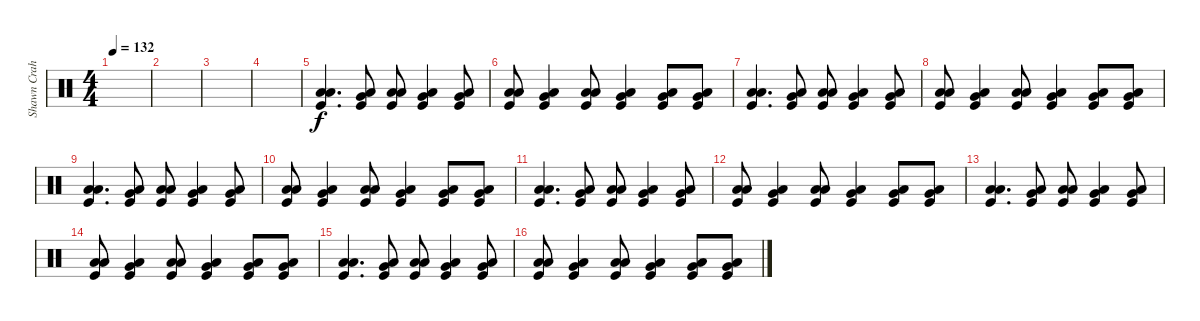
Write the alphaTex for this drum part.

\track ("Shawn Crahan" "Shawn Crah") {instrument percussion}
\staff {score}
\articulation defaults
\ts (4 4)
\tempo 132
\clef neutral
\ks c
|
|
|
|
("Low Floor Tom (hit)" "Kick (hit)" "Low Tom (hit)").4{d} ("Low Floor Tom (hit)" "Kick (hit)" "Very Low Tom (hit)").8 ("Low Floor Tom (hit)" "Kick (hit)" "Low Tom (hit)").8 ("Low Floor Tom (hit)" "Kick (hit)" "Very Low Tom (hit)").4 ("Low Floor Tom (hit)" "Kick (hit)" "Very Low Tom (hit)").8 |
("Low Floor Tom (hit)" "Kick (hit)" "Low Tom (hit)").8 ("Low Floor Tom (hit)" "Kick (hit)" "Very Low Tom (hit)").4 ("Low Floor Tom (hit)" "Kick (hit)" "Low Tom (hit)").8 ("Low Floor Tom (hit)" "Kick (hit)" "Very Low Tom (hit)").4 ("Low Floor Tom (hit)" "Kick (hit)" "Very Low Tom (hit)").8 ("Low Floor Tom (hit)" "Kick (hit)" "Very Low Tom (hit)").8 |
("Low Floor Tom (hit)" "Kick (hit)" "Low Tom (hit)").4{d} ("Low Floor Tom (hit)" "Kick (hit)" "Very Low Tom (hit)").8 ("Low Floor Tom (hit)" "Kick (hit)" "Low Tom (hit)").8 ("Low Floor Tom (hit)" "Kick (hit)" "Very Low Tom (hit)").4 ("Low Floor Tom (hit)" "Kick (hit)" "Very Low Tom (hit)").8 |
("Low Floor Tom (hit)" "Kick (hit)" "Low Tom (hit)").8 ("Low Floor Tom (hit)" "Kick (hit)" "Very Low Tom (hit)").4 ("Low Floor Tom (hit)" "Kick (hit)" "Low Tom (hit)").8 ("Low Floor Tom (hit)" "Kick (hit)" "Very Low Tom (hit)").4 ("Low Floor Tom (hit)" "Kick (hit)" "Very Low Tom (hit)").8 ("Low Floor Tom (hit)" "Kick (hit)" "Very Low Tom (hit)").8 |
("Low Floor Tom (hit)" "Kick (hit)" "Low Tom (hit)").4{d} ("Low Floor Tom (hit)" "Kick (hit)" "Very Low Tom (hit)").8 ("Low Floor Tom (hit)" "Kick (hit)" "Low Tom (hit)").8 ("Low Floor Tom (hit)" "Kick (hit)" "Very Low Tom (hit)").4 ("Low Floor Tom (hit)" "Kick (hit)" "Very Low Tom (hit)").8 |
("Low Floor Tom (hit)" "Kick (hit)" "Low Tom (hit)").8 ("Low Floor Tom (hit)" "Kick (hit)" "Very Low Tom (hit)").4 ("Low Floor Tom (hit)" "Kick (hit)" "Low Tom (hit)").8 ("Low Floor Tom (hit)" "Kick (hit)" "Very Low Tom (hit)").4 ("Low Floor Tom (hit)" "Kick (hit)" "Very Low Tom (hit)").8 ("Low Floor Tom (hit)" "Kick (hit)" "Very Low Tom (hit)").8 |
("Low Floor Tom (hit)" "Kick (hit)" "Low Tom (hit)").4{d} ("Low Floor Tom (hit)" "Kick (hit)" "Very Low Tom (hit)").8 ("Low Floor Tom (hit)" "Kick (hit)" "Low Tom (hit)").8 ("Low Floor Tom (hit)" "Kick (hit)" "Very Low Tom (hit)").4 ("Low Floor Tom (hit)" "Kick (hit)" "Very Low Tom (hit)").8 |
("Low Floor Tom (hit)" "Kick (hit)" "Low Tom (hit)").8 ("Low Floor Tom (hit)" "Kick (hit)" "Very Low Tom (hit)").4 ("Low Floor Tom (hit)" "Kick (hit)" "Low Tom (hit)").8 ("Low Floor Tom (hit)" "Kick (hit)" "Very Low Tom (hit)").4 ("Low Floor Tom (hit)" "Kick (hit)" "Very Low Tom (hit)").8 ("Low Floor Tom (hit)" "Kick (hit)" "Very Low Tom (hit)").8 |
("Low Floor Tom (hit)" "Kick (hit)" "Low Tom (hit)").4{d} ("Low Floor Tom (hit)" "Kick (hit)" "Very Low Tom (hit)").8 ("Low Floor Tom (hit)" "Kick (hit)" "Low Tom (hit)").8 ("Low Floor Tom (hit)" "Kick (hit)" "Very Low Tom (hit)").4 ("Low Floor Tom (hit)" "Kick (hit)" "Very Low Tom (hit)").8 |
("Low Floor Tom (hit)" "Kick (hit)" "Low Tom (hit)").8 ("Low Floor Tom (hit)" "Kick (hit)" "Very Low Tom (hit)").4 ("Low Floor Tom (hit)" "Kick (hit)" "Low Tom (hit)").8 ("Low Floor Tom (hit)" "Kick (hit)" "Very Low Tom (hit)").4 ("Low Floor Tom (hit)" "Kick (hit)" "Very Low Tom (hit)").8 ("Low Floor Tom (hit)" "Kick (hit)" "Very Low Tom (hit)").8 |
("Low Floor Tom (hit)" "Kick (hit)" "Low Tom (hit)").4{d} ("Low Floor Tom (hit)" "Kick (hit)" "Very Low Tom (hit)").8 ("Low Floor Tom (hit)" "Kick (hit)" "Low Tom (hit)").8 ("Low Floor Tom (hit)" "Kick (hit)" "Very Low Tom (hit)").4 ("Low Floor Tom (hit)" "Kick (hit)" "Very Low Tom (hit)").8 |
("Low Floor Tom (hit)" "Kick (hit)" "Low Tom (hit)").8 ("Low Floor Tom (hit)" "Kick (hit)" "Very Low Tom (hit)").4 ("Low Floor Tom (hit)" "Kick (hit)" "Low Tom (hit)").8 ("Low Floor Tom (hit)" "Kick (hit)" "Very Low Tom (hit)").4 ("Low Floor Tom (hit)" "Kick (hit)" "Very Low Tom (hit)").8 ("Low Floor Tom (hit)" "Kick (hit)" "Very Low Tom (hit)").8
